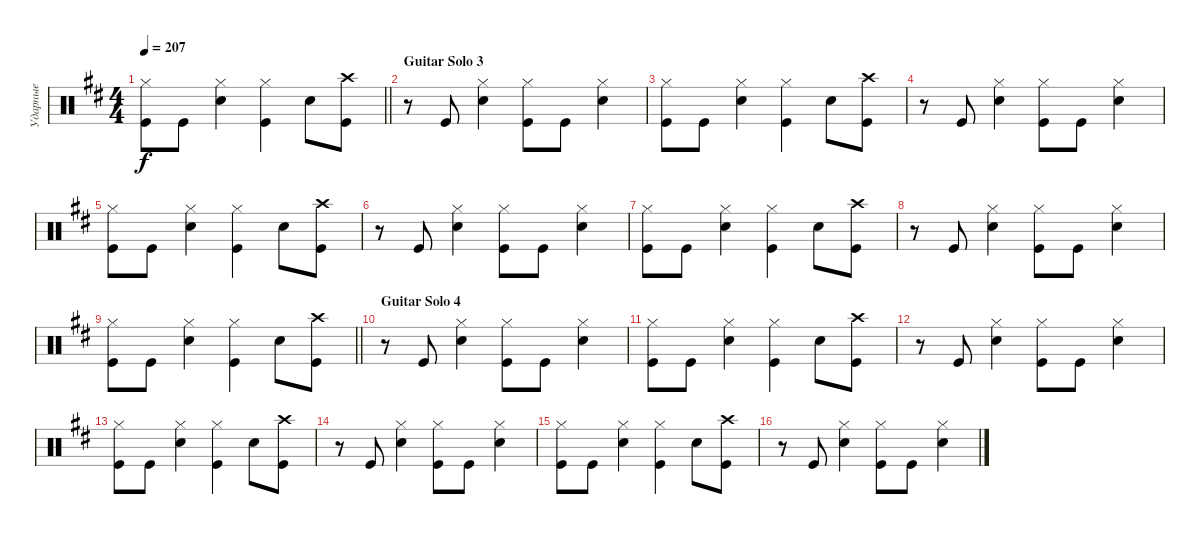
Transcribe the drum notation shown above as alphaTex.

\track ("Ударные" "Ударные") {instrument percussion}
\staff {score}
\articulation defaults
\ts (4 4)
\tempo 207
\clef neutral
\barLineRight lightlight
\ks bminor
("Kick (hit)" "Hi-Hat (closed)").8{dy f} "Kick (hit)".8 ("Snare (hit) 2" "Hi-Hat (closed)").4 ("Kick (hit)" "Hi-Hat (closed)").4 "Snare (hit) 2".8 ("Kick (hit)" "Crash high (hit)").8 |
\section ("" "Guitar Solo 3")
r.8 "Kick (hit)".8 ("Snare (hit) 2" "Hi-Hat (closed)").4 ("Kick (hit)" "Hi-Hat (closed)").8 "Kick (hit)".8 ("Snare (hit) 2" "Hi-Hat (closed)").4 |
("Kick (hit)" "Hi-Hat (closed)").8 "Kick (hit)".8 ("Snare (hit) 2" "Hi-Hat (closed)").4 ("Kick (hit)" "Hi-Hat (closed)").4 "Snare (hit) 2".8 ("Kick (hit)" "Crash high (hit)").8 |
r.8 "Kick (hit)".8 ("Snare (hit) 2" "Hi-Hat (closed)").4 ("Kick (hit)" "Hi-Hat (closed)").8 "Kick (hit)".8 ("Snare (hit) 2" "Hi-Hat (closed)").4 |
("Kick (hit)" "Hi-Hat (closed)").8 "Kick (hit)".8 ("Snare (hit) 2" "Hi-Hat (closed)").4 ("Kick (hit)" "Hi-Hat (closed)").4 "Snare (hit) 2".8 ("Kick (hit)" "Crash high (hit)").8 |
r.8 "Kick (hit)".8 ("Snare (hit) 2" "Hi-Hat (closed)").4 ("Kick (hit)" "Hi-Hat (closed)").8 "Kick (hit)".8 ("Snare (hit) 2" "Hi-Hat (closed)").4 |
("Kick (hit)" "Hi-Hat (closed)").8 "Kick (hit)".8 ("Snare (hit) 2" "Hi-Hat (closed)").4 ("Kick (hit)" "Hi-Hat (closed)").4 "Snare (hit) 2".8 ("Kick (hit)" "Crash high (hit)").8 |
r.8 "Kick (hit)".8 ("Snare (hit) 2" "Hi-Hat (closed)").4 ("Kick (hit)" "Hi-Hat (closed)").8 "Kick (hit)".8 ("Snare (hit) 2" "Hi-Hat (closed)").4 |
\barLineRight lightlight
("Kick (hit)" "Hi-Hat (closed)").8 "Kick (hit)".8 ("Snare (hit) 2" "Hi-Hat (closed)").4 ("Kick (hit)" "Hi-Hat (closed)").4 "Snare (hit) 2".8 ("Kick (hit)" "Crash high (hit)").8 |
\section ("" "Guitar Solo 4")
r.8 "Kick (hit)".8 ("Snare (hit) 2" "Hi-Hat (closed)").4 ("Kick (hit)" "Hi-Hat (closed)").8 "Kick (hit)".8 ("Snare (hit) 2" "Hi-Hat (closed)").4 |
("Kick (hit)" "Hi-Hat (closed)").8 "Kick (hit)".8 ("Snare (hit) 2" "Hi-Hat (closed)").4 ("Kick (hit)" "Hi-Hat (closed)").4 "Snare (hit) 2".8 ("Kick (hit)" "Crash high (hit)").8 |
r.8 "Kick (hit)".8 ("Snare (hit) 2" "Hi-Hat (closed)").4 ("Kick (hit)" "Hi-Hat (closed)").8 "Kick (hit)".8 ("Snare (hit) 2" "Hi-Hat (closed)").4 |
("Kick (hit)" "Hi-Hat (closed)").8 "Kick (hit)".8 ("Snare (hit) 2" "Hi-Hat (closed)").4 ("Kick (hit)" "Hi-Hat (closed)").4 "Snare (hit) 2".8 ("Kick (hit)" "Crash high (hit)").8 |
r.8 "Kick (hit)".8 ("Snare (hit) 2" "Hi-Hat (closed)").4 ("Kick (hit)" "Hi-Hat (closed)").8 "Kick (hit)".8 ("Snare (hit) 2" "Hi-Hat (closed)").4 |
("Kick (hit)" "Hi-Hat (closed)").8 "Kick (hit)".8 ("Snare (hit) 2" "Hi-Hat (closed)").4 ("Kick (hit)" "Hi-Hat (closed)").4 "Snare (hit) 2".8 ("Kick (hit)" "Crash high (hit)").8 |
r.8 "Kick (hit)".8 ("Snare (hit) 2" "Hi-Hat (closed)").4 ("Kick (hit)" "Hi-Hat (closed)").8 "Kick (hit)".8 ("Snare (hit) 2" "Hi-Hat (closed)").4
